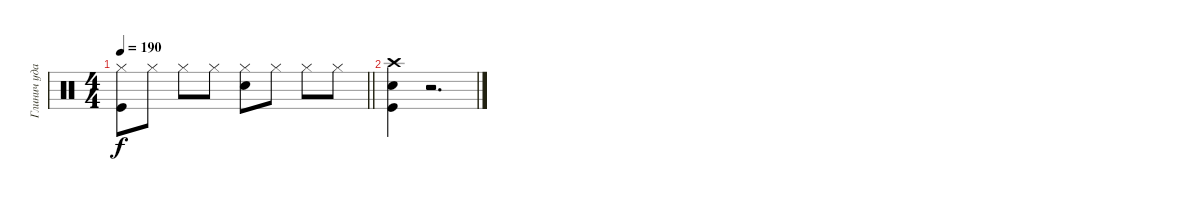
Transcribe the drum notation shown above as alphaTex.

\track ("Глинич ударные" "Глинич уда") {instrument percussion}
\staff {score}
\articulation defaults
\ts (4 4)
\tempo 190
\clef neutral
\barLineRight lightlight
\ks c
("Hi-Hat (closed)" "Kick (hit)").8{dy f} "Hi-Hat (closed)".8 "Hi-Hat (closed)".8 "Hi-Hat (closed)".8 ("Hi-Hat (closed)" "Snare (hit) 2").8 "Hi-Hat (closed)".8 "Hi-Hat (closed)".8 "Hi-Hat (closed)".8 |
("Crash high (hit)" "Kick (hit)" "Snare (hit) 2").4 r.2{d}
